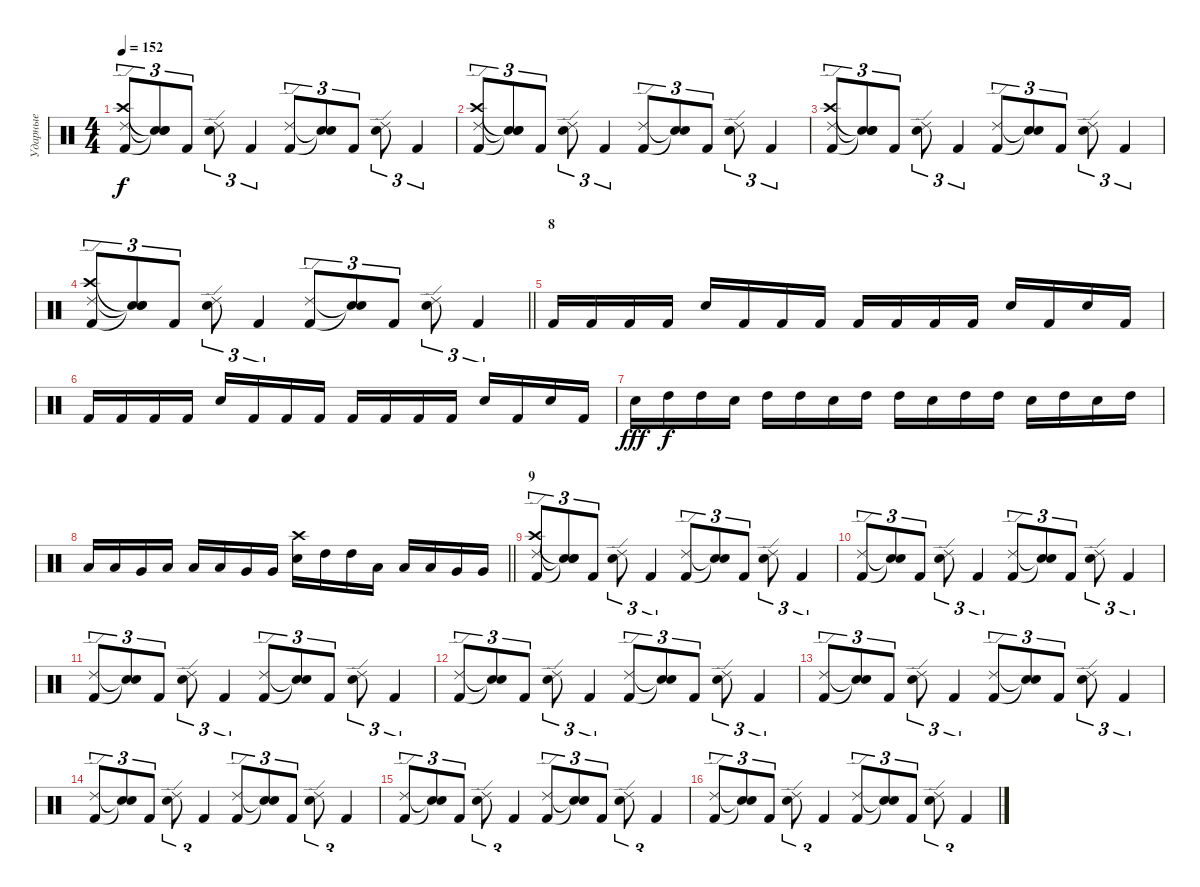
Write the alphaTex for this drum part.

\track ("Ударные" "Ударные") {instrument percussion}
\staff {score}
\articulation defaults
\ts (4 4)
\tempo 152
\clef neutral
\ks c
("Kick (hit) 2" "Crash high (hit)" "Ride (edge) 2").8{tu (3 2) dy f} ("Snare (hit)"{t} "Snare (hit)"{t} "Snare (hit)"{t}).8{tu (3 2)} "Kick (hit) 2".8{tu (3 2)} ("Electric Snare (hit)" "Ride (edge) 2").8{tu (3 2)} "Kick (hit) 2".4{tu (3 2)} ("Kick (hit) 2" "Ride (edge) 2").8{tu (3 2)} ("Snare (hit)"{t} "Snare (hit)"{t}).8{tu (3 2)} "Kick (hit) 2".8{tu (3 2)} ("Electric Snare (hit)" "Ride (edge) 2").8{tu (3 2)} "Kick (hit) 2".4{tu (3 2)} |
("Kick (hit) 2" "Crash high (hit)" "Ride (edge) 2").8{tu (3 2)} ("Snare (hit)"{t} "Snare (hit)"{t} "Snare (hit)"{t}).8{tu (3 2)} "Kick (hit) 2".8{tu (3 2)} ("Electric Snare (hit)" "Ride (edge) 2").8{tu (3 2)} "Kick (hit) 2".4{tu (3 2)} ("Kick (hit) 2" "Ride (edge) 2").8{tu (3 2)} ("Snare (hit)"{t} "Snare (hit)"{t}).8{tu (3 2)} "Kick (hit) 2".8{tu (3 2)} ("Electric Snare (hit)" "Ride (edge) 2").8{tu (3 2)} "Kick (hit) 2".4{tu (3 2)} |
("Kick (hit) 2" "Crash high (hit)" "Ride (edge) 2").8{tu (3 2)} ("Snare (hit)"{t} "Snare (hit)"{t} "Snare (hit)"{t}).8{tu (3 2)} "Kick (hit) 2".8{tu (3 2)} ("Electric Snare (hit)" "Ride (edge) 2").8{tu (3 2)} "Kick (hit) 2".4{tu (3 2)} ("Kick (hit) 2" "Ride (edge) 2").8{tu (3 2)} ("Snare (hit)"{t} "Snare (hit)"{t}).8{tu (3 2)} "Kick (hit) 2".8{tu (3 2)} ("Electric Snare (hit)" "Ride (edge) 2").8{tu (3 2)} "Kick (hit) 2".4{tu (3 2)} |
\barLineRight lightlight
("Kick (hit) 2" "Crash high (hit)" "Ride (edge) 2").8{tu (3 2)} ("Snare (hit)"{t} "Snare (hit)"{t} "Snare (hit)"{t}).8{tu (3 2)} "Kick (hit) 2".8{tu (3 2)} ("Electric Snare (hit)" "Ride (edge) 2").8{tu (3 2)} "Kick (hit) 2".4{tu (3 2)} ("Kick (hit) 2" "Ride (edge) 2").8{tu (3 2)} ("Snare (hit)"{t} "Snare (hit)"{t}).8{tu (3 2)} "Kick (hit) 2".8{tu (3 2)} ("Electric Snare (hit)" "Ride (edge) 2").8{tu (3 2)} "Kick (hit) 2".4{tu (3 2)} |
\section ("" "8")
"Kick (hit) 2".16 "Kick (hit) 2".16 "Kick (hit) 2".16 "Kick (hit) 2".16 "Electric Snare (hit)".16 "Kick (hit) 2".16 "Kick (hit) 2".16 "Kick (hit) 2".16 "Kick (hit) 2".16 "Kick (hit) 2".16 "Kick (hit) 2".16 "Kick (hit) 2".16 "Electric Snare (hit)".16 "Kick (hit) 2".16 "Electric Snare (hit)".16 "Kick (hit) 2".16 |
"Kick (hit) 2".16 "Kick (hit) 2".16 "Kick (hit) 2".16 "Kick (hit) 2".16 "Electric Snare (hit)".16 "Kick (hit) 2".16 "Kick (hit) 2".16 "Kick (hit) 2".16 "Kick (hit) 2".16 "Kick (hit) 2".16 "Kick (hit) 2".16 "Kick (hit) 2".16 "Electric Snare (hit)".16 "Kick (hit) 2".16 "Electric Snare (hit)".16 "Kick (hit) 2".16 |
"Electric Snare (hit)".16{dy fff} "High Tom (hit)".16{dy f} "High Tom (hit)".16 "Electric Snare (hit)".16 "High Tom (hit)".16 "High Tom (hit)".16 "Electric Snare (hit)".16 "High Tom (hit)".16 "High Tom (hit)".16 "Electric Snare (hit)".16 "High Tom (hit)".16 "High Tom (hit)".16 "Electric Snare (hit)".16 "High Tom (hit)".16 "Electric Snare (hit)".16 "High Tom (hit)".16 |
\barLineRight lightlight "Low Tom (hit)".16 "Low Tom (hit)".16 "Very Low Tom (hit)".16 "Low Floor Tom (hit)".16 "Low Tom (hit)".16 "Low Tom (hit)".16 "Very Low Tom (hit)".16 "Very Low Tom (hit)".16
("Electric Snare (hit)" "Crash high (hit)").16 "High Tom (hit)".16 "High Tom (hit)".16 "Low Tom (hit)".16 "Low Tom (hit)".16 "Low Tom (hit)".16 "Very Low Tom (hit)".16 "Very Low Tom (hit)".16 |
\section ("" "9")
("Kick (hit) 2" "Crash high (hit)" "Ride (edge) 2").8{tu (3 2)} ("Snare (hit)"{t} "Snare (hit)"{t} "Snare (hit)"{t}).8{tu (3 2)} "Kick (hit) 2".8{tu (3 2)} ("Electric Snare (hit)" "Ride (edge) 2").8{tu (3 2)} "Kick (hit) 2".4{tu (3 2)} ("Kick (hit) 2" "Ride (edge) 2").8{tu (3 2)} ("Snare (hit)"{t} "Snare (hit)"{t}).8{tu (3 2)} "Kick (hit) 2".8{tu (3 2)} ("Electric Snare (hit)" "Ride (edge) 2").8{tu (3 2)} "Kick (hit) 2".4{tu (3 2)} |
("Kick (hit) 2" "Ride (edge) 2").8{tu (3 2)} ("Snare (hit)"{t} "Snare (hit)"{t}).8{tu (3 2)} "Kick (hit) 2".8{tu (3 2)} ("Electric Snare (hit)" "Ride (edge) 2").8{tu (3 2)} "Kick (hit) 2".4{tu (3 2)} ("Kick (hit) 2" "Ride (edge) 2").8{tu (3 2)} ("Snare (hit)"{t} "Snare (hit)"{t}).8{tu (3 2)} "Kick (hit) 2".8{tu (3 2)} ("Electric Snare (hit)" "Ride (edge) 2").8{tu (3 2)} "Kick (hit) 2".4{tu (3 2)} |
("Kick (hit) 2" "Ride (edge) 2").8{tu (3 2)} ("Snare (hit)"{t} "Snare (hit)"{t}).8{tu (3 2)} "Kick (hit) 2".8{tu (3 2)} ("Electric Snare (hit)" "Ride (edge) 2").8{tu (3 2)} "Kick (hit) 2".4{tu (3 2)} ("Kick (hit) 2" "Ride (edge) 2").8{tu (3 2)} ("Snare (hit)"{t} "Snare (hit)"{t}).8{tu (3 2)} "Kick (hit) 2".8{tu (3 2)} ("Electric Snare (hit)" "Ride (edge) 2").8{tu (3 2)} "Kick (hit) 2".4{tu (3 2)} |
("Kick (hit) 2" "Ride (edge) 2").8{tu (3 2)} ("Snare (hit)"{t} "Snare (hit)"{t}).8{tu (3 2)} "Kick (hit) 2".8{tu (3 2)} ("Electric Snare (hit)" "Ride (edge) 2").8{tu (3 2)} "Kick (hit) 2".4{tu (3 2)} ("Kick (hit) 2" "Ride (edge) 2").8{tu (3 2)} ("Snare (hit)"{t} "Snare (hit)"{t}).8{tu (3 2)} "Kick (hit) 2".8{tu (3 2)} ("Electric Snare (hit)" "Ride (edge) 2").8{tu (3 2)} "Kick (hit) 2".4{tu (3 2)} |
("Kick (hit) 2" "Ride (edge) 2").8{tu (3 2)} ("Snare (hit)"{t} "Snare (hit)"{t}).8{tu (3 2)} "Kick (hit) 2".8{tu (3 2)} ("Electric Snare (hit)" "Ride (edge) 2").8{tu (3 2)} "Kick (hit) 2".4{tu (3 2)} ("Kick (hit) 2" "Ride (edge) 2").8{tu (3 2)} ("Snare (hit)"{t} "Snare (hit)"{t}).8{tu (3 2)} "Kick (hit) 2".8{tu (3 2)} ("Electric Snare (hit)" "Ride (edge) 2").8{tu (3 2)} "Kick (hit) 2".4{tu (3 2)} |
("Kick (hit) 2" "Ride (edge) 2").8{tu (3 2)} ("Snare (hit)"{t} "Snare (hit)"{t}).8{tu (3 2)} "Kick (hit) 2".8{tu (3 2)} ("Electric Snare (hit)" "Ride (edge) 2").8{tu (3 2)} "Kick (hit) 2".4{tu (3 2)} ("Kick (hit) 2" "Ride (edge) 2").8{tu (3 2)} ("Snare (hit)"{t} "Snare (hit)"{t}).8{tu (3 2)} "Kick (hit) 2".8{tu (3 2)} ("Electric Snare (hit)" "Ride (edge) 2").8{tu (3 2)} "Kick (hit) 2".4{tu (3 2)} |
("Kick (hit) 2" "Ride (edge) 2").8{tu (3 2)} ("Snare (hit)"{t} "Snare (hit)"{t}).8{tu (3 2)} "Kick (hit) 2".8{tu (3 2)} ("Electric Snare (hit)" "Ride (edge) 2").8{tu (3 2)} "Kick (hit) 2".4{tu (3 2)} ("Kick (hit) 2" "Ride (edge) 2").8{tu (3 2)} ("Snare (hit)"{t} "Snare (hit)"{t}).8{tu (3 2)} "Kick (hit) 2".8{tu (3 2)} ("Electric Snare (hit)" "Ride (edge) 2").8{tu (3 2)} "Kick (hit) 2".4{tu (3 2)} |
("Kick (hit) 2" "Ride (edge) 2").8{tu (3 2)} ("Snare (hit)"{t} "Snare (hit)"{t}).8{tu (3 2)} "Kick (hit) 2".8{tu (3 2)} ("Electric Snare (hit)" "Ride (edge) 2").8{tu (3 2)} "Kick (hit) 2".4{tu (3 2)} ("Kick (hit) 2" "Ride (edge) 2").8{tu (3 2)} ("Snare (hit)"{t} "Snare (hit)"{t}).8{tu (3 2)} "Kick (hit) 2".8{tu (3 2)} ("Electric Snare (hit)" "Ride (edge) 2").8{tu (3 2)} "Kick (hit) 2".4{tu (3 2)}
